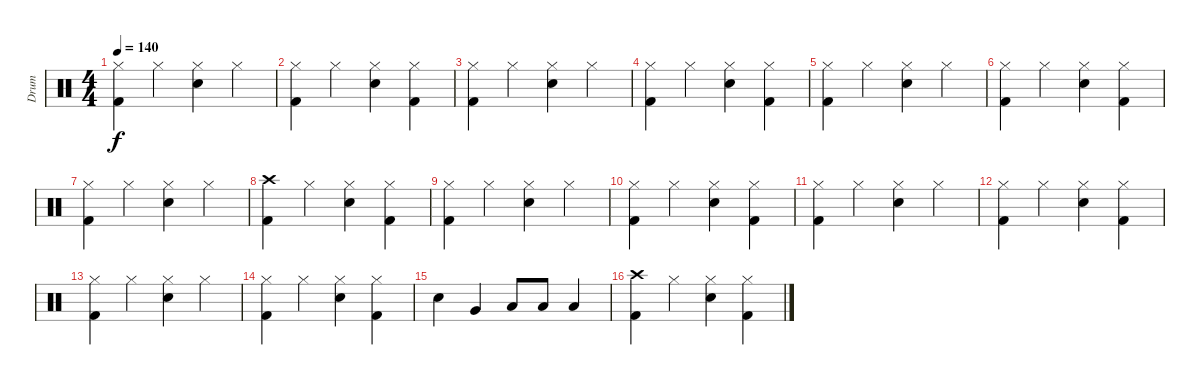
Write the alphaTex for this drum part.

\track ("Drum" "Drum") {instrument percussion}
\staff {score}
\articulation defaults
\ts (4 4)
\tempo 140
\clef neutral
\ks c
("Hi-Hat (closed)" "Kick (hit) 2").4{dy f} "Hi-Hat (closed)".4 ("Hi-Hat (closed)" "Electric Snare (hit)").4 "Hi-Hat (closed)".4 |
("Hi-Hat (closed)" "Kick (hit) 2").4 "Hi-Hat (closed)".4 ("Hi-Hat (closed)" "Electric Snare (hit)").4 ("Hi-Hat (closed)" "Kick (hit) 2").4 |
("Hi-Hat (closed)" "Kick (hit) 2").4 "Hi-Hat (closed)".4 ("Hi-Hat (closed)" "Electric Snare (hit)").4 "Hi-Hat (closed)".4 |
("Hi-Hat (closed)" "Kick (hit) 2").4 "Hi-Hat (closed)".4 ("Hi-Hat (closed)" "Electric Snare (hit)").4 ("Hi-Hat (closed)" "Kick (hit) 2").4 |
("Hi-Hat (closed)" "Kick (hit) 2").4 "Hi-Hat (closed)".4 ("Hi-Hat (closed)" "Electric Snare (hit)").4 "Hi-Hat (closed)".4 |
("Hi-Hat (closed)" "Kick (hit) 2").4 "Hi-Hat (closed)".4 ("Hi-Hat (closed)" "Electric Snare (hit)").4 ("Hi-Hat (closed)" "Kick (hit) 2").4 |
("Hi-Hat (closed)" "Kick (hit) 2").4 "Hi-Hat (closed)".4 ("Hi-Hat (closed)" "Electric Snare (hit)").4 "Hi-Hat (closed)".4 |
("Crash high (hit)" "Kick (hit) 2").4 "Hi-Hat (closed)".4 ("Hi-Hat (closed)" "Electric Snare (hit)").4 ("Hi-Hat (closed)" "Kick (hit) 2").4 |
("Hi-Hat (closed)" "Kick (hit) 2").4 "Hi-Hat (closed)".4 ("Hi-Hat (closed)" "Electric Snare (hit)").4 "Hi-Hat (closed)".4 |
("Hi-Hat (closed)" "Kick (hit) 2").4 "Hi-Hat (closed)".4 ("Hi-Hat (closed)" "Electric Snare (hit)").4 ("Hi-Hat (closed)" "Kick (hit) 2").4 |
("Hi-Hat (closed)" "Kick (hit) 2").4 "Hi-Hat (closed)".4 ("Hi-Hat (closed)" "Electric Snare (hit)").4 "Hi-Hat (closed)".4 |
("Hi-Hat (closed)" "Kick (hit) 2").4 "Hi-Hat (closed)".4 ("Hi-Hat (closed)" "Electric Snare (hit)").4 ("Hi-Hat (closed)" "Kick (hit) 2").4 |
("Hi-Hat (closed)" "Kick (hit) 2").4 "Hi-Hat (closed)".4 ("Hi-Hat (closed)" "Electric Snare (hit)").4 "Hi-Hat (closed)".4 |
("Hi-Hat (closed)" "Kick (hit) 2").4 "Hi-Hat (closed)".4 ("Hi-Hat (closed)" "Electric Snare (hit)").4 ("Hi-Hat (closed)" "Kick (hit) 2").4 |
"Electric Snare (hit)".4 "Very Low Tom (hit)".4 "Low Floor Tom (hit)".8 "Low Floor Tom (hit)".8 "Low Floor Tom (hit)".4 |
("Crash high (hit)" "Kick (hit) 2").4 "Hi-Hat (closed)".4 ("Hi-Hat (closed)" "Electric Snare (hit)").4 ("Hi-Hat (closed)" "Kick (hit) 2").4
